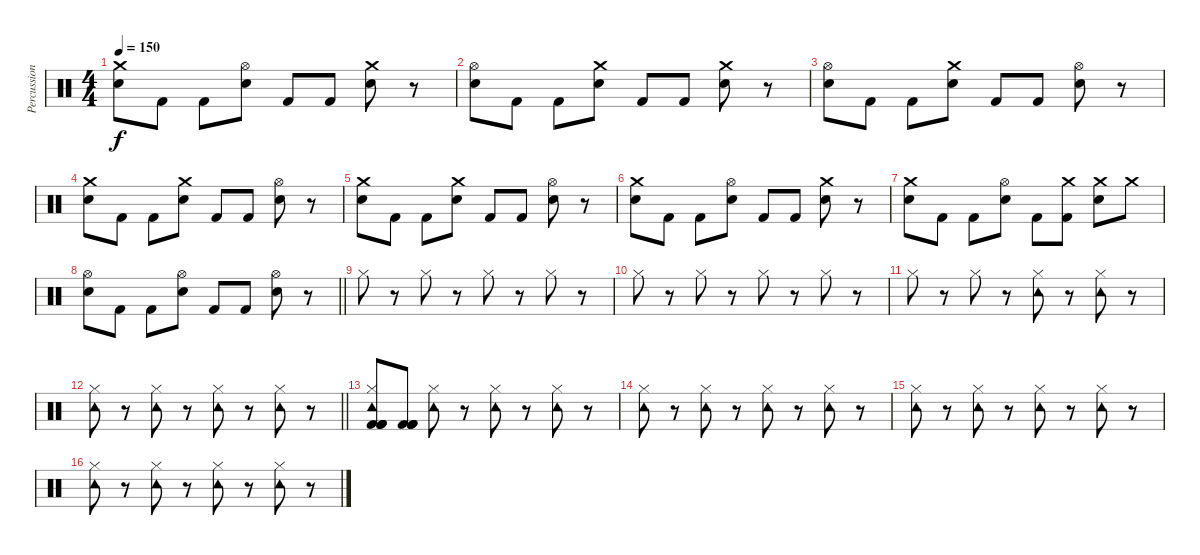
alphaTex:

\track ("Percussion" "Percussion") {instrument percussion}
\staff {score}
\articulation defaults
\ts (4 4)
\tempo 150
\clef neutral
\ks c
("Electric Snare (hit)" "Crash medium (hit)").8{dy f} "Kick (hit) 2".8 "Kick (hit) 2".8 ("Electric Snare (hit)" "Hi-Hat (open)").8 "Kick (hit) 2".8 "Kick (hit) 2".8 ("Electric Snare (hit)" "Crash medium (hit)").8 r.8 |
("Electric Snare (hit)" "Hi-Hat (open)").8 "Kick (hit) 2".8 "Kick (hit) 2".8 ("Electric Snare (hit)" "Crash medium (hit)").8 "Kick (hit) 2".8 "Kick (hit) 2".8 ("Electric Snare (hit)" "Crash medium (hit)").8 r.8 |
("Electric Snare (hit)" "Hi-Hat (open)").8 "Kick (hit) 2".8 "Kick (hit) 2".8 ("Electric Snare (hit)" "Crash medium (hit)").8 "Kick (hit) 2".8 "Kick (hit) 2".8 ("Electric Snare (hit)" "Hi-Hat (open)").8 r.8 |
("Electric Snare (hit)" "Crash medium (hit)").8 "Kick (hit) 2".8 "Kick (hit) 2".8 ("Electric Snare (hit)" "Crash medium (hit)").8 "Kick (hit) 2".8 "Kick (hit) 2".8 ("Electric Snare (hit)" "Hi-Hat (open)").8 r.8 |
("Electric Snare (hit)" "Crash medium (hit)").8 "Kick (hit) 2".8 "Kick (hit) 2".8 ("Electric Snare (hit)" "Crash medium (hit)").8 "Kick (hit) 2".8 "Kick (hit) 2".8 ("Electric Snare (hit)" "Hi-Hat (open)").8 r.8 |
("Electric Snare (hit)" "Crash medium (hit)").8 "Kick (hit) 2".8 "Kick (hit) 2".8 ("Electric Snare (hit)" "Hi-Hat (open)").8 "Kick (hit) 2".8 "Kick (hit) 2".8 ("Electric Snare (hit)" "Crash medium (hit)").8 r.8 |
("Electric Snare (hit)" "Crash medium (hit)").8 "Kick (hit) 2".8 "Kick (hit) 2".8 ("Electric Snare (hit)" "Hi-Hat (open)").8 "Kick (hit) 2".8 ("Kick (hit) 2" "Crash medium (hit)").8 ("Electric Snare (hit)" "Crash medium (hit)").8 "Crash medium (hit)".8 |
\barLineRight lightlight
("Electric Snare (hit)" "Hi-Hat (open)").8 "Kick (hit) 2".8 "Kick (hit) 2".8 ("Electric Snare (hit)" "Hi-Hat (open)").8 "Kick (hit) 2".8 "Kick (hit) 2".8 ("Electric Snare (hit)" "Hi-Hat (open)").8 r.8 |
"Hi-Hat (closed)".8 r.8 "Hi-Hat (closed)".8 r.8 "Hi-Hat (closed)".8 r.8 "Hi-Hat (closed)".8 r.8 |
"Hi-Hat (closed)".8 r.8 "Hi-Hat (closed)".8 r.8 "Hi-Hat (closed)".8 r.8 "Hi-Hat (closed)".8 r.8 |
"Hi-Hat (closed)".8 r.8 "Hi-Hat (closed)".8 r.8 ("Hi-Hat (closed)" "Tambourine (hit)").8 r.8 ("Hi-Hat (closed)" "Tambourine (hit)").8 r.8 |
\barLineRight lightlight
("Hi-Hat (closed)" "Tambourine (hit)").8 r.8 ("Hi-Hat (closed)" "Tambourine (hit)").8 r.8 ("Hi-Hat (closed)" "Tambourine (hit)").8 r.8 ("Hi-Hat (closed)" "Tambourine (hit)").8 r.8 |
("Hi-Hat (closed)" "Kick (hit) 2" "Kick (hit) 2" "Tambourine (hit)" "Kick (hit) 2" "Kick (hit) 2").8 ("Kick (hit) 2" "Kick (hit) 2" "Kick (hit) 2" "Kick (hit) 2").8 ("Hi-Hat (closed)" "Tambourine (hit)").8 r.8 ("Hi-Hat (closed)" "Tambourine (hit)").8 r.8 ("Hi-Hat (closed)" "Tambourine (hit)").8 r.8 |
("Hi-Hat (closed)" "Tambourine (hit)").8 r.8 ("Hi-Hat (closed)" "Tambourine (hit)").8 r.8 ("Hi-Hat (closed)" "Tambourine (hit)").8 r.8 ("Hi-Hat (closed)" "Tambourine (hit)").8 r.8 |
("Hi-Hat (closed)" "Tambourine (hit)").8 r.8 ("Hi-Hat (closed)" "Tambourine (hit)").8 r.8 ("Hi-Hat (closed)" "Tambourine (hit)").8 r.8 ("Hi-Hat (closed)" "Tambourine (hit)").8 r.8 |
("Hi-Hat (closed)" "Tambourine (hit)").8 r.8 ("Hi-Hat (closed)" "Tambourine (hit)").8 r.8 ("Hi-Hat (closed)" "Tambourine (hit)").8 r.8 ("Hi-Hat (closed)" "Tambourine (hit)").8 r.8
